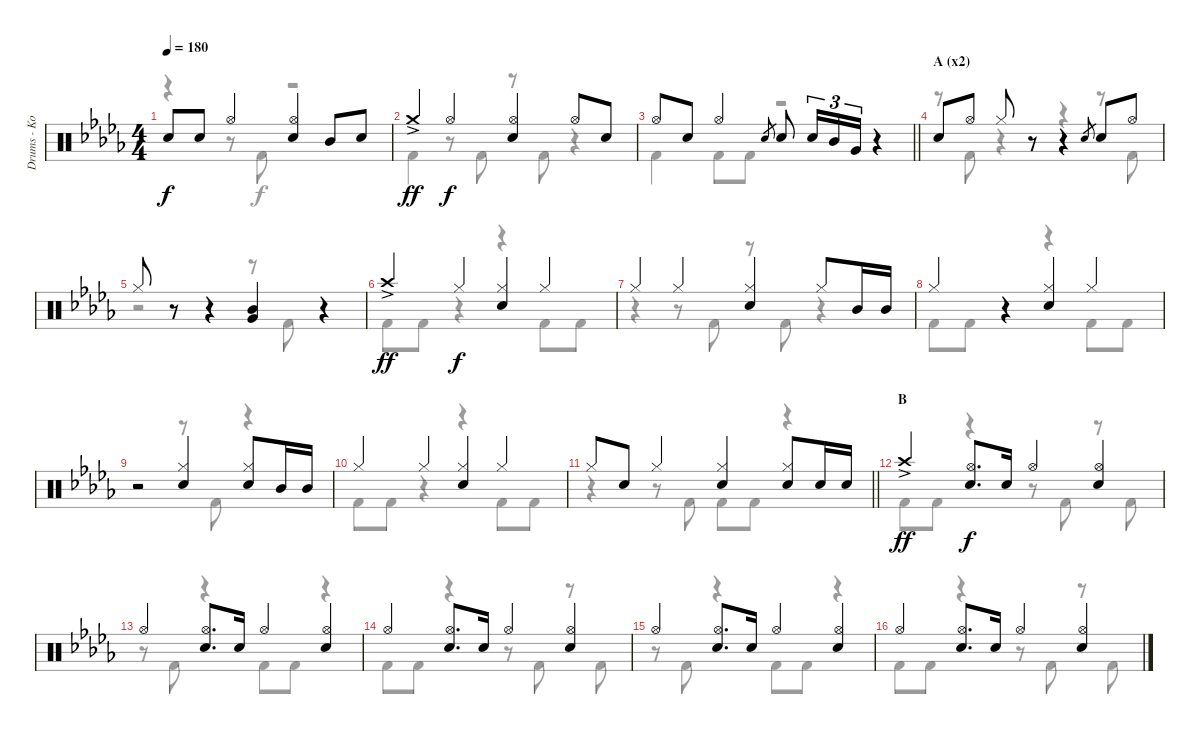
\track ("Drums - Koji Hasegawa" "Drums - Ko") {instrument percussion}
\staff {score}
\articulation defaults
\voice
\ts (4 4)
\tempo 180
\clef neutral
\ks db "Snare (hit)"{t}.8{dy f} "Snare (hit) 2".8 "Hi-Hat (open)".4
("Hi-Hat (open)" "Snare (hit) 2").4 "Mid Tom (hit)".8 "Snare (hit) 2".8 |
"Crash medium (hit)"{ac}.4{dy ff} "Hi-Hat (open)".4{dy f} ("Hi-Hat (open)" "Snare (hit) 2").4 "Hi-Hat (open)".8 "Snare (hit) 2".8 |
\barLineRight lightlight "Hi-Hat (open)".8 "Snare (hit) 2".8 "Hi-Hat (open)".4 "Snare (hit) 2".8{gr} "Snare (hit) 2".8 "Snare (hit) 2".16{tu (3 2)} "Mid Tom (hit)".16{tu (3 2)} "Very Low Tom (hit)".16{tu (3 2)}
r.4 |
\section ("" "A (x2)")
"Snare (hit) 2".8 "Hi-Hat (open)".8 "Hi-Hat (closed)".8 r.8 r.4 "Snare (hit) 2".8{gr} "Snare (hit) 2".8 "Hi-Hat (open)".8 |
"Hi-Hat (closed)".8 r.8 r.4 ("Mid Tom (hit)" "Very Low Tom (hit)").4 r.4 |
"Crash high (hit)"{ac}.4{dy ff} "Hi-Hat (closed)".4{dy f} ("Hi-Hat (closed)" "Snare (hit) 2").4 "Hi-Hat (closed)".4 |
"Hi-Hat (closed)".4 "Hi-Hat (closed)".4 ("Hi-Hat (closed)" "Snare (hit) 2").4 "Hi-Hat (closed)".8 "Mid Tom (hit)".16 "Mid Tom (hit)".16 |
"Hi-Hat (closed)".4 r.4 ("Hi-Hat (closed)" "Snare (hit) 2").4 "Hi-Hat (closed)".4 |
r.2 ("Hi-Hat (closed)" "Snare (hit) 2").4 ("Hi-Hat (closed)" "Snare (hit) 2").8 "Mid Tom (hit)".16 "Mid Tom (hit)".16 |
"Hi-Hat (closed)".4 "Hi-Hat (closed)".4 ("Hi-Hat (closed)" "Snare (hit) 2").4 "Hi-Hat (closed)".4 |
\barLineRight lightlight "Hi-Hat (closed)".8 "Snare (hit) 2".8 "Hi-Hat (closed)".4
("Hi-Hat (closed)" "Snare (hit) 2").4 ("Hi-Hat (closed)" "Snare (hit) 2").8 "Snare (hit) 2".16 "Snare (hit) 2".16 |
\section ("" "B")
"Crash high (hit)"{ac}.4{dy ff} ("Hi-Hat (open)" "Snare (hit) 2").8{d dy f} "Snare (hit) 2".16 "Hi-Hat (open)".4 ("Hi-Hat (open)" "Snare (hit) 2").4 |
"Hi-Hat (open)".4 ("Hi-Hat (open)" "Snare (hit) 2").8{d} "Snare (hit) 2".16 "Hi-Hat (open)".4 ("Hi-Hat (open)" "Snare (hit) 2").4 |
"Hi-Hat (open)".4 ("Hi-Hat (open)" "Snare (hit) 2").8{d} "Snare (hit) 2".16 "Hi-Hat (open)".4 ("Hi-Hat (open)" "Snare (hit) 2").4 |
"Hi-Hat (open)".4 ("Hi-Hat (open)" "Snare (hit) 2").8{d} "Snare (hit) 2".16 "Hi-Hat (open)".4 ("Hi-Hat (open)" "Snare (hit) 2").4 |
"Hi-Hat (open)".4 ("Hi-Hat (open)" "Snare (hit) 2").8{d} "Snare (hit) 2".16 "Hi-Hat (open)".4 ("Hi-Hat (open)" "Snare (hit) 2").4
\voice
\clef neutral
\ottava regular
\simile none
\ks db
r.4{dy f} r.8 "Kick (hit) 2".8 r.2 |
"Kick (hit) 2".4 r.8 "Kick (hit) 2".8 r.8 "Kick (hit) 2".8 r.4 |
\barLineRight lightlight "Kick (hit) 2".4 "Kick (hit) 2".8 "Kick (hit) 2".8
r.2 |
r.8 "Kick (hit) 2".8 r.4 r.4 r.8 "Kick (hit) 2".8 |
r.2 r.8 "Kick (hit) 2".8 r.4 |
"Kick (hit) 2".8 "Kick (hit) 2".8 r.4 r.4 "Kick (hit) 2".8 "Kick (hit) 2".8 |
r.4 r.8 "Kick (hit) 2".8 r.8 "Kick (hit) 2".8 r.4 |
"Kick (hit) 2".8 "Kick (hit) 2".8 r.4 r.4 "Kick (hit) 2".8 "Kick (hit) 2".8 |
r.2 r.8 "Kick (hit) 2".8 r.4 |
"Kick (hit) 2".8 "Kick (hit) 2".8 r.4 r.4 "Kick (hit) 2".8 "Kick (hit) 2".8 |
\barLineRight lightlight
r.4 r.8 "Kick (hit) 2".8 "Kick (hit) 2".8 "Kick (hit) 2".8 r.4 |
"Kick (hit) 2".8 "Kick (hit) 2".8 r.4 r.8 "Kick (hit) 2".8 r.8 "Kick (hit) 2".8 |
r.8 "Kick (hit) 2".8 r.4 "Kick (hit) 2".8 "Kick (hit) 2".8 r.4 |
"Kick (hit) 2".8 "Kick (hit) 2".8 r.4 r.8 "Kick (hit) 2".8 r.8 "Kick (hit) 2".8 |
r.8 "Kick (hit) 2".8 r.4 "Kick (hit) 2".8 "Kick (hit) 2".8 r.4 |
"Kick (hit) 2".8 "Kick (hit) 2".8 r.4 r.8 "Kick (hit) 2".8 r.8 "Kick (hit) 2".8
